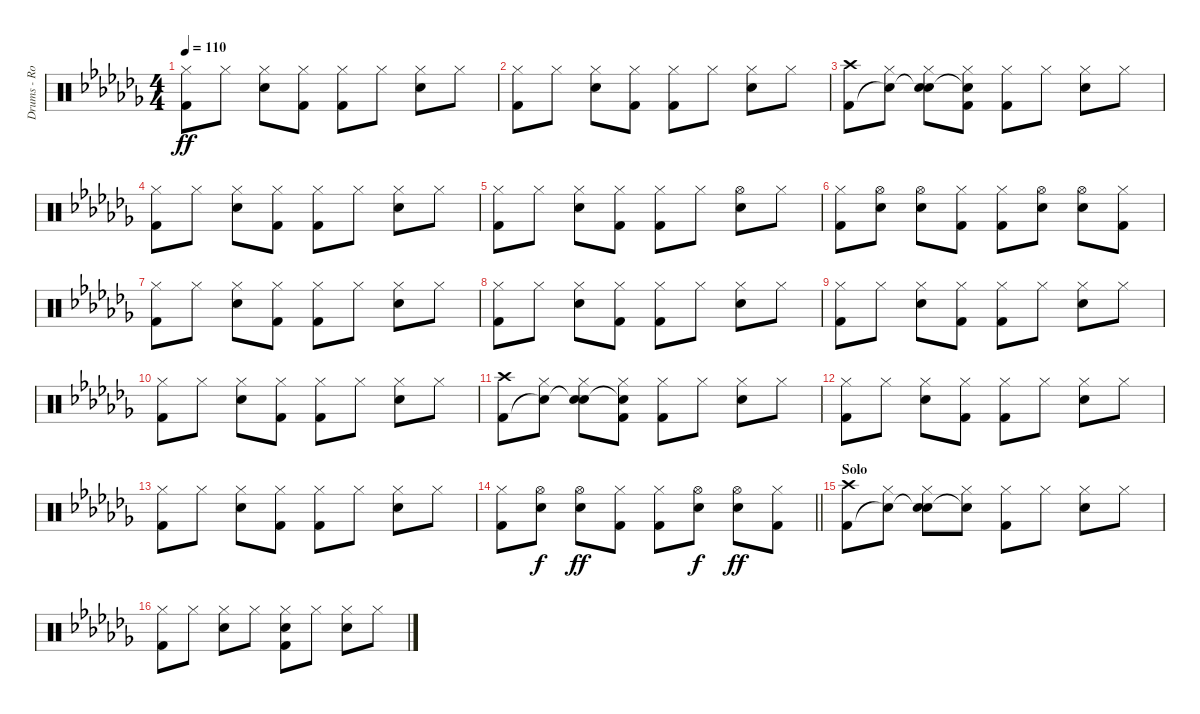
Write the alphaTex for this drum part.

\track ("Drums - Rob Bourdon" "Drums - Ro") {instrument percussion}
\staff {score}
\articulation defaults
\ts (4 4)
\tempo 110
\clef neutral
\ks abminor
("Hi-Hat (closed)" "Kick (hit) 2").8{dy ff} "Hi-Hat (closed)".8 ("Hi-Hat (closed)" "Electric Snare (hit)").8 ("Hi-Hat (closed)" "Kick (hit) 2").8 ("Hi-Hat (closed)" "Kick (hit) 2").8 "Hi-Hat (closed)".8 ("Hi-Hat (closed)" "Electric Snare (hit)").8 "Hi-Hat (closed)".8 |
("Hi-Hat (closed)" "Kick (hit) 2").8 "Hi-Hat (closed)".8 ("Hi-Hat (closed)" "Electric Snare (hit)").8 ("Hi-Hat (closed)" "Kick (hit) 2").8 ("Hi-Hat (closed)" "Kick (hit) 2").8 "Hi-Hat (closed)".8 ("Hi-Hat (closed)" "Electric Snare (hit)").8 "Hi-Hat (closed)".8 |
("Crash high (hit)" "Kick (hit) 2").8 ("Hi-Hat (closed)" "Snare (hit)"{t}).8 ("Hi-Hat (closed)" "Snare (hit)"{t} "Electric Snare (hit)").8 ("Hi-Hat (closed)" "Snare (hit)"{t} "Kick (hit) 2").8 ("Hi-Hat (closed)" "Kick (hit) 2").8 "Hi-Hat (closed)".8 ("Hi-Hat (closed)" "Electric Snare (hit)").8 "Hi-Hat (closed)".8 |
("Hi-Hat (closed)" "Kick (hit) 2").8 "Hi-Hat (closed)".8 ("Hi-Hat (closed)" "Electric Snare (hit)").8 ("Hi-Hat (closed)" "Kick (hit) 2").8 ("Hi-Hat (closed)" "Kick (hit) 2").8 "Hi-Hat (closed)".8 ("Hi-Hat (closed)" "Electric Snare (hit)").8 "Hi-Hat (closed)".8 |
("Hi-Hat (closed)" "Kick (hit) 2").8 "Hi-Hat (closed)".8 ("Hi-Hat (closed)" "Electric Snare (hit)").8 ("Hi-Hat (closed)" "Kick (hit) 2").8 ("Hi-Hat (closed)" "Kick (hit) 2").8 "Hi-Hat (closed)".8 ("Hi-Hat (open)" "Electric Snare (hit)").8 "Hi-Hat (closed)".8 |
("Hi-Hat (closed)" "Kick (hit) 2").8 ("Hi-Hat (open)" "Electric Snare (hit)").8 ("Hi-Hat (open)" "Electric Snare (hit)").8 ("Hi-Hat (closed)" "Kick (hit) 2").8 ("Hi-Hat (closed)" "Kick (hit) 2").8 ("Hi-Hat (open)" "Electric Snare (hit)").8 ("Hi-Hat (open)" "Electric Snare (hit)").8 ("Hi-Hat (closed)" "Kick (hit) 2").8 |
("Hi-Hat (closed)" "Kick (hit) 2").8 "Hi-Hat (closed)".8 ("Hi-Hat (closed)" "Electric Snare (hit)").8 ("Hi-Hat (closed)" "Kick (hit) 2").8 ("Hi-Hat (closed)" "Kick (hit) 2").8 "Hi-Hat (closed)".8 ("Hi-Hat (closed)" "Electric Snare (hit)").8 "Hi-Hat (closed)".8 |
("Hi-Hat (closed)" "Kick (hit) 2").8 "Hi-Hat (closed)".8 ("Hi-Hat (closed)" "Electric Snare (hit)").8 ("Hi-Hat (closed)" "Kick (hit) 2").8 ("Hi-Hat (closed)" "Kick (hit) 2").8 "Hi-Hat (closed)".8 ("Hi-Hat (closed)" "Electric Snare (hit)").8 "Hi-Hat (closed)".8 |
("Hi-Hat (closed)" "Kick (hit) 2").8 "Hi-Hat (closed)".8 ("Hi-Hat (closed)" "Electric Snare (hit)").8 ("Hi-Hat (closed)" "Kick (hit) 2").8 ("Hi-Hat (closed)" "Kick (hit) 2").8 "Hi-Hat (closed)".8 ("Hi-Hat (closed)" "Electric Snare (hit)").8 "Hi-Hat (closed)".8 |
("Hi-Hat (closed)" "Kick (hit) 2").8 "Hi-Hat (closed)".8 ("Hi-Hat (closed)" "Electric Snare (hit)").8 ("Hi-Hat (closed)" "Kick (hit) 2").8 ("Hi-Hat (closed)" "Kick (hit) 2").8 "Hi-Hat (closed)".8 ("Hi-Hat (closed)" "Electric Snare (hit)").8 "Hi-Hat (closed)".8 |
("Crash high (hit)" "Kick (hit) 2").8 ("Hi-Hat (closed)" "Snare (hit)"{t}).8 ("Hi-Hat (closed)" "Snare (hit)"{t} "Electric Snare (hit)").8 ("Hi-Hat (closed)" "Snare (hit)"{t} "Kick (hit) 2").8 ("Hi-Hat (closed)" "Kick (hit) 2").8 "Hi-Hat (closed)".8 ("Hi-Hat (closed)" "Electric Snare (hit)").8 "Hi-Hat (closed)".8 |
("Hi-Hat (closed)" "Kick (hit) 2").8 "Hi-Hat (closed)".8 ("Hi-Hat (closed)" "Electric Snare (hit)").8 ("Hi-Hat (closed)" "Kick (hit) 2").8 ("Hi-Hat (closed)" "Kick (hit) 2").8 "Hi-Hat (closed)".8 ("Hi-Hat (closed)" "Electric Snare (hit)").8 "Hi-Hat (closed)".8 |
("Hi-Hat (closed)" "Kick (hit) 2").8 "Hi-Hat (closed)".8 ("Hi-Hat (closed)" "Electric Snare (hit)").8 ("Hi-Hat (closed)" "Kick (hit) 2").8 ("Hi-Hat (closed)" "Kick (hit) 2").8 "Hi-Hat (closed)".8 ("Hi-Hat (closed)" "Electric Snare (hit)").8 "Hi-Hat (closed)".8 |
\barLineRight lightlight
("Hi-Hat (closed)" "Kick (hit) 2").8 ("Hi-Hat (open)" "Electric Snare (hit)").8{dy f} ("Hi-Hat (open)" "Electric Snare (hit)").8{dy ff} ("Hi-Hat (closed)" "Kick (hit) 2").8 ("Hi-Hat (closed)" "Kick (hit) 2").8 ("Hi-Hat (open)" "Electric Snare (hit)").8{dy f} ("Hi-Hat (open)" "Electric Snare (hit)").8{dy ff} ("Hi-Hat (closed)" "Kick (hit) 2").8 |
\section ("" "Solo")
("Crash high (hit)" "Kick (hit) 2").8 ("Hi-Hat (closed)" "Snare (hit)"{t}).8 ("Hi-Hat (closed)" "Snare (hit)"{t} "Electric Snare (hit)").8 ("Hi-Hat (closed)" "Snare (hit)"{t}).8 ("Hi-Hat (closed)" "Kick (hit) 2").8 "Hi-Hat (closed)".8 ("Hi-Hat (closed)" "Electric Snare (hit)").8 "Hi-Hat (closed)".8 |
("Hi-Hat (closed)" "Kick (hit) 2").8 "Hi-Hat (closed)".8 ("Hi-Hat (closed)" "Electric Snare (hit)").8 "Hi-Hat (closed)".8 ("Hi-Hat (closed)" "Metronome (bell)" "Kick (hit) 2").8 "Hi-Hat (closed)".8 ("Hi-Hat (closed)" "Electric Snare (hit)").8 "Hi-Hat (closed)".8
